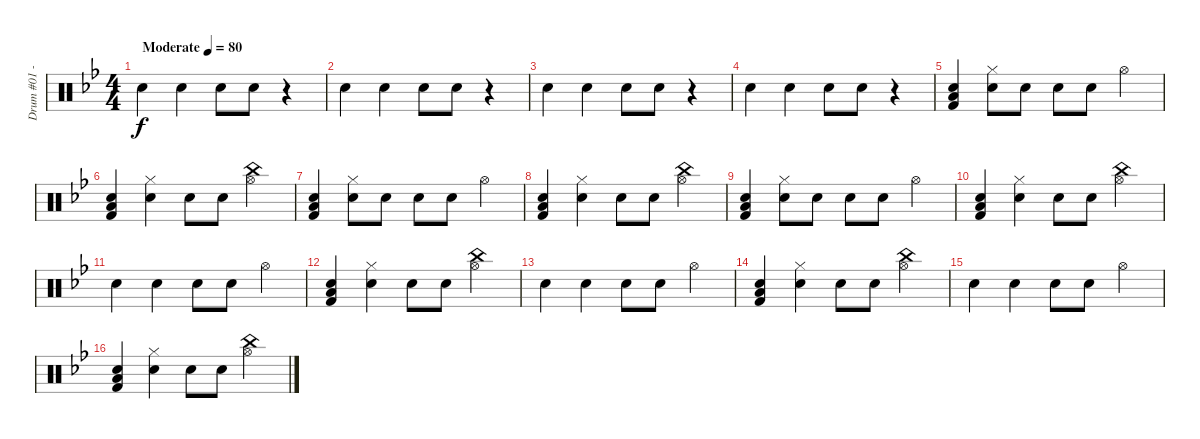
\track ("Drum #01 - CP" "Drum #01 -") {instrument percussion}
\staff {score}
\articulation defaults
\ts (4 4)
\tempo (80 "Moderate")
\clef neutral
\ks bb "Snare (hit) 2".4{dy f} "Snare (hit) 2".4 "Electric Snare (hit)".8 "Electric Snare (hit)".8
r.4 |
"Snare (hit) 2".4 "Snare (hit) 2".4 "Electric Snare (hit)".8 "Electric Snare (hit)".8 r.4 |
"Snare (hit) 2".4 "Snare (hit) 2".4 "Electric Snare (hit)".8 "Electric Snare (hit)".8 r.4 |
"Snare (hit) 2".4 "Snare (hit) 2".4 "Electric Snare (hit)".8 "Electric Snare (hit)".8 r.4 |
("Snare (hit) 2" "Low Tom (hit)" "Kick (hit) 2").4 ("Snare (hit) 2" "Hi-Hat (closed)").8 "Electric Snare (hit)".8 "Electric Snare (hit)".8 "Electric Snare (hit)".8 "Hi-Hat (open)".4 |
("Snare (hit) 2" "Low Tom (hit)" "Kick (hit) 2").4 ("Snare (hit) 2" "Hi-Hat (closed)").4 "Electric Snare (hit)".8 "Electric Snare (hit)".8 ("Hi-Hat (open)" "China (hit)").4 |
("Snare (hit) 2" "Low Tom (hit)" "Kick (hit) 2").4 ("Snare (hit) 2" "Hi-Hat (closed)").8 "Electric Snare (hit)".8 "Electric Snare (hit)".8 "Electric Snare (hit)".8 "Hi-Hat (open)".4 |
("Snare (hit) 2" "Low Tom (hit)" "Kick (hit) 2").4 ("Snare (hit) 2" "Hi-Hat (closed)").4 "Electric Snare (hit)".8 "Electric Snare (hit)".8 ("Hi-Hat (open)" "China (hit)").4 |
("Snare (hit) 2" "Low Tom (hit)" "Kick (hit) 2").4 ("Snare (hit) 2" "Hi-Hat (closed)").8 "Electric Snare (hit)".8 "Electric Snare (hit)".8 "Electric Snare (hit)".8 "Hi-Hat (open)".4 |
("Snare (hit) 2" "Low Tom (hit)" "Kick (hit) 2").4 ("Snare (hit) 2" "Hi-Hat (closed)").4 "Electric Snare (hit)".8 "Electric Snare (hit)".8 ("Hi-Hat (open)" "China (hit)").4 |
"Snare (hit) 2".4 "Snare (hit) 2".4 "Electric Snare (hit)".8 "Electric Snare (hit)".8 "Hi-Hat (open)".4 |
("Snare (hit) 2" "Low Tom (hit)" "Kick (hit) 2").4 ("Snare (hit) 2" "Hi-Hat (closed)").4 "Electric Snare (hit)".8 "Electric Snare (hit)".8 ("Hi-Hat (open)" "China (hit)").4 |
"Snare (hit) 2".4 "Snare (hit) 2".4 "Electric Snare (hit)".8 "Electric Snare (hit)".8 "Hi-Hat (open)".4 |
("Snare (hit) 2" "Low Tom (hit)" "Kick (hit) 2").4 ("Snare (hit) 2" "Hi-Hat (closed)").4 "Electric Snare (hit)".8 "Electric Snare (hit)".8 ("Hi-Hat (open)" "China (hit)").4 |
"Snare (hit) 2".4 "Snare (hit) 2".4 "Electric Snare (hit)".8 "Electric Snare (hit)".8 "Hi-Hat (open)".4 |
("Snare (hit) 2" "Low Tom (hit)" "Kick (hit) 2").4 ("Snare (hit) 2" "Hi-Hat (closed)").4 "Electric Snare (hit)".8 "Electric Snare (hit)".8 ("Hi-Hat (open)" "China (hit)").4
